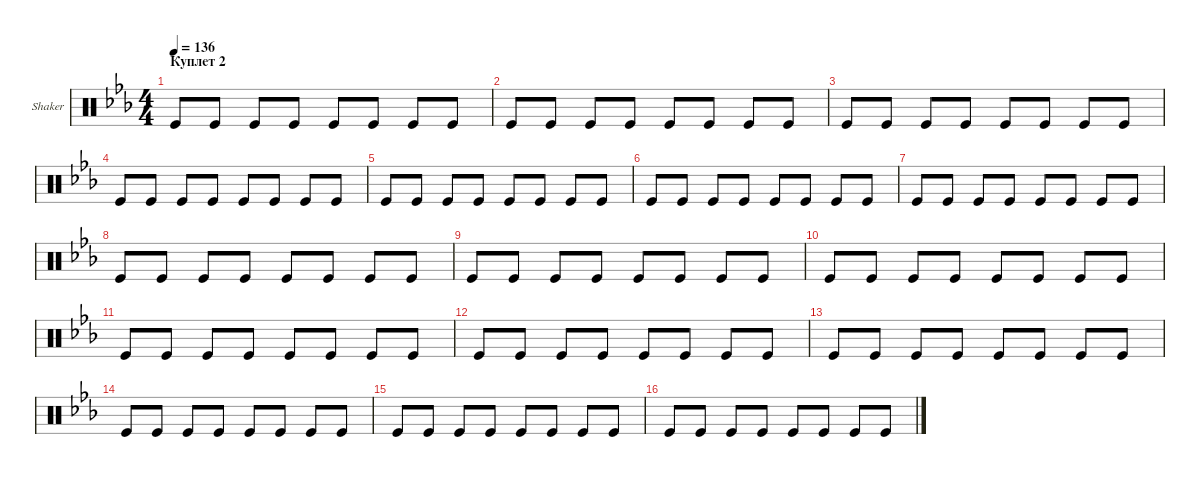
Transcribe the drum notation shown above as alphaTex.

\defaultSystemsLayout 4
\hideDynamics
\bracketExtendMode groupsimilarinstruments
\multiTrackTrackNamePolicy allsystems
\firstSystemTrackNameOrientation horizontal
\otherSystemsTrackNameOrientation horizontal
\track ("Shaker" "Shaker") {instrument percussion}
\staff {score}
\articulation defaults
\ts (4 4)
\section ("" "Куплет 2")
\scale
0.201028
\tempo 136
\accidentals auto
\clef neutral
\ottava regular
\simile none
\ks cminor "Kick (hit)".8{dy mf} "Kick (hit)".8 "Kick (hit)".8 "Kick (hit)".8 "Kick (hit)".8 "Kick (hit)".8 "Kick (hit)".8 "Kick (hit)".8
|
\scale
0.178277 "Kick (hit)".8 "Kick (hit)".8 "Kick (hit)".8 "Kick (hit)".8 "Kick (hit)".8 "Kick (hit)".8 "Kick (hit)".8 "Kick (hit)".8 |
\scale
0.229542 "Kick (hit)".8 "Kick (hit)".8 "Kick (hit)".8 "Kick (hit)".8 "Kick (hit)".8 "Kick (hit)".8 "Kick (hit)".8 "Kick (hit)".8 |
\scale
0.193966 "Kick (hit)".8 "Kick (hit)".8 "Kick (hit)".8 "Kick (hit)".8 "Kick (hit)".8 "Kick (hit)".8 "Kick (hit)".8 "Kick (hit)".8 |
"Kick (hit)".8 "Kick (hit)".8 "Kick (hit)".8 "Kick (hit)".8 "Kick (hit)".8 "Kick (hit)".8 "Kick (hit)".8 "Kick (hit)".8 |
"Kick (hit)".8 "Kick (hit)".8 "Kick (hit)".8 "Kick (hit)".8 "Kick (hit)".8 "Kick (hit)".8 "Kick (hit)".8 "Kick (hit)".8 |
"Kick (hit)".8 "Kick (hit)".8 "Kick (hit)".8 "Kick (hit)".8 "Kick (hit)".8 "Kick (hit)".8 "Kick (hit)".8 "Kick (hit)".8 |
"Kick (hit)".8 "Kick (hit)".8 "Kick (hit)".8 "Kick (hit)".8 "Kick (hit)".8 "Kick (hit)".8 "Kick (hit)".8 "Kick (hit)".8 |
"Kick (hit)".8 "Kick (hit)".8 "Kick (hit)".8 "Kick (hit)".8 "Kick (hit)".8 "Kick (hit)".8 "Kick (hit)".8 "Kick (hit)".8 |
"Kick (hit)".8 "Kick (hit)".8 "Kick (hit)".8 "Kick (hit)".8 "Kick (hit)".8 "Kick (hit)".8 "Kick (hit)".8 "Kick (hit)".8 |
"Kick (hit)".8 "Kick (hit)".8 "Kick (hit)".8 "Kick (hit)".8 "Kick (hit)".8 "Kick (hit)".8 "Kick (hit)".8 "Kick (hit)".8 |
"Kick (hit)".8 "Kick (hit)".8 "Kick (hit)".8 "Kick (hit)".8 "Kick (hit)".8 "Kick (hit)".8 "Kick (hit)".8 "Kick (hit)".8 |
"Kick (hit)".8 "Kick (hit)".8 "Kick (hit)".8 "Kick (hit)".8 "Kick (hit)".8 "Kick (hit)".8 "Kick (hit)".8 "Kick (hit)".8 |
"Kick (hit)".8 "Kick (hit)".8 "Kick (hit)".8 "Kick (hit)".8 "Kick (hit)".8 "Kick (hit)".8 "Kick (hit)".8 "Kick (hit)".8 |
"Kick (hit)".8 "Kick (hit)".8 "Kick (hit)".8 "Kick (hit)".8 "Kick (hit)".8 "Kick (hit)".8 "Kick (hit)".8 "Kick (hit)".8 |
"Kick (hit)".8 "Kick (hit)".8 "Kick (hit)".8 "Kick (hit)".8 "Kick (hit)".8 "Kick (hit)".8 "Kick (hit)".8 "Kick (hit)".8
